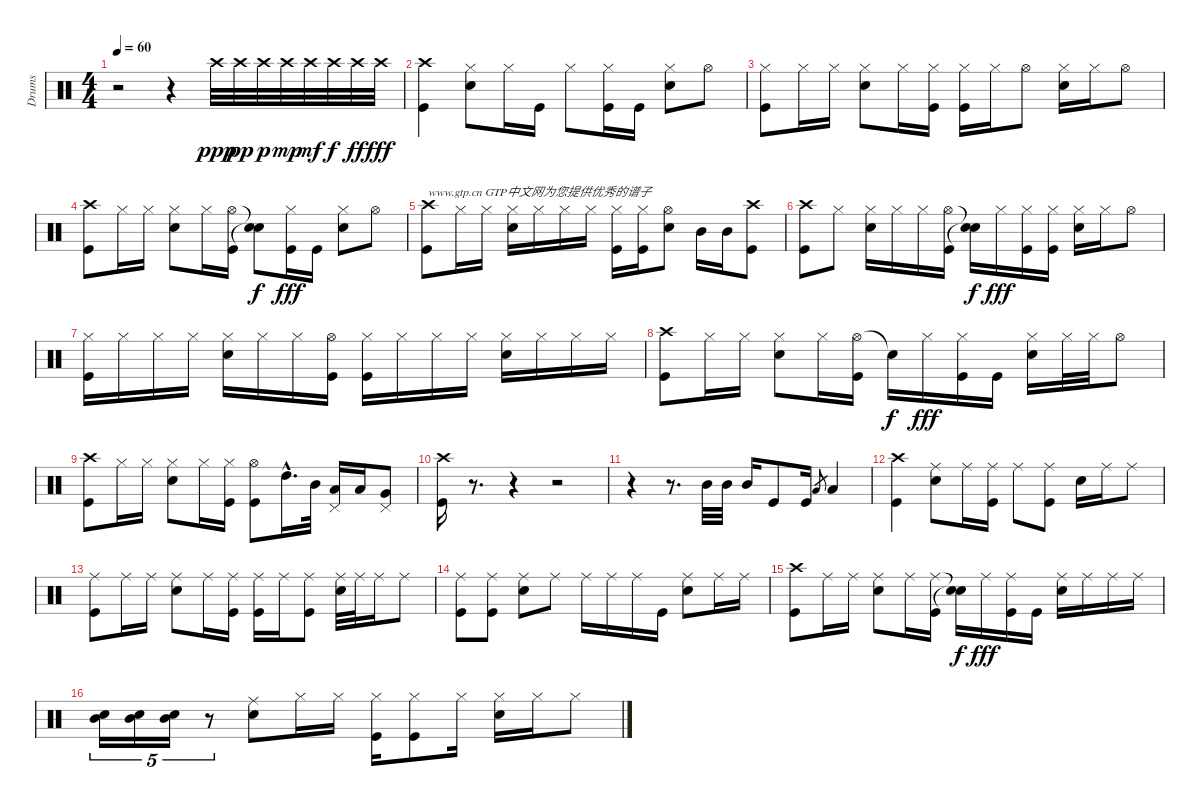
\track ("Drums" "Drums") {instrument percussion}
\staff {score}
\articulation defaults
\ts (4 4)
\tempo 60
\clef neutral
\ks c
r.2{dy ppp} r.4 "Crash high (hit)".32 "Crash high (hit)".32{dy pp} "Crash high (hit)".32{dy p} "Crash high (hit)".32{dy mp} "Crash high (hit)".32{dy mf} "Crash high (hit)".32{dy f} "Crash high (hit)".32{dy ff} "Crash high (hit)".32{dy fff} |
("Crash high (hit)" "Kick (hit)").4 ("Hi-Hat (closed)" "Snare (hit) 2").8 "Hi-Hat (closed)".16 "Kick (hit)".16 "Hi-Hat (closed)".8 ("Hi-Hat (closed)" "Kick (hit)").16 "Kick (hit)".16 ("Hi-Hat (closed)" "Snare (hit) 2").8 "Hi-Hat (open)".8 |
("Hi-Hat (closed)" "Kick (hit)").8 "Hi-Hat (closed)".16 "Hi-Hat (closed)".16 ("Hi-Hat (closed)" "Snare (hit) 2").8 "Hi-Hat (closed)".16 ("Hi-Hat (closed)" "Kick (hit)").16 ("Hi-Hat (closed)" "Kick (hit)").16 "Hi-Hat (closed)".16 "Hi-Hat (open)".8 ("Hi-Hat (closed)" "Snare (hit) 2").16 "Hi-Hat (closed)".16 "Hi-Hat (open)".8 |
("Crash high (hit)" "Kick (hit)").8 "Hi-Hat (closed)".16 "Hi-Hat (closed)".16 ("Hi-Hat (closed)" "Snare (hit) 2").8 "Hi-Hat (closed)".16 ("Hi-Hat (open)" "Kick (hit)").16 ("Snare (hit)"{t} "Snare (hit)"{t}).8{dy f} ("Hi-Hat (closed)" "Kick (hit)").16{dy fff} "Kick (hit)".16 ("Hi-Hat (closed)" "Snare (hit) 2").8 "Hi-Hat (open)".8 |
("Crash high (hit)" "Kick (hit)").8{txt "www.gtp.cn GTP中文网为您提供优秀的谱子"} "Hi-Hat (closed)".16 "Hi-Hat (closed)".16 ("Hi-Hat (closed)" "Snare (hit) 2").16 "Hi-Hat (closed)".16 "Hi-Hat (closed)".16 "Hi-Hat (closed)".16 ("Hi-Hat (closed)" "Kick (hit)").16 ("Hi-Hat (closed)" "Kick (hit)").16 ("Hi-Hat (open)" "Snare (hit) 2").8 "Mid Tom (hit)".16 "Mid Tom (hit)".16 ("Crash high (hit)" "Kick (hit)").8 |
("Crash high (hit)" "Kick (hit)").8 "Hi-Hat (closed)".8 ("Hi-Hat (closed)" "Snare (hit) 2").16 "Hi-Hat (closed)".16 "Hi-Hat (closed)".16 ("Hi-Hat (open)" "Kick (hit)").16 ("Snare (hit)"{t} "Snare (hit)"{t}).16{dy f} "Hi-Hat (closed)".16{dy fff} ("Hi-Hat (closed)" "Kick (hit)").16 ("Hi-Hat (closed)" "Kick (hit)").16 ("Hi-Hat (closed)" "Snare (hit) 2").16 "Hi-Hat (closed)".16 "Hi-Hat (open)".8 |
("Hi-Hat (closed)" "Kick (hit)").16 "Hi-Hat (closed)".16 "Hi-Hat (closed)".16 "Hi-Hat (closed)".16 ("Hi-Hat (closed)" "Snare (hit) 2").16 "Hi-Hat (closed)".16 "Hi-Hat (closed)".16 ("Hi-Hat (open)" "Kick (hit)").16 ("Hi-Hat (closed)" "Kick (hit)").16 "Hi-Hat (closed)".16 "Hi-Hat (closed)".16 "Hi-Hat (closed)".16 ("Hi-Hat (closed)" "Snare (hit) 2").16 "Hi-Hat (closed)".16 "Hi-Hat (closed)".16 "Hi-Hat (closed)".16 |
("Crash high (hit)" "Kick (hit)").8 "Hi-Hat (closed)".16 "Hi-Hat (closed)".16 ("Hi-Hat (closed)" "Snare (hit) 2").8 "Hi-Hat (closed)".16 ("Hi-Hat (open)" "Kick (hit)").16 "Snare (hit)"{t}.16{dy f} "Hi-Hat (closed)".16{dy fff} ("Hi-Hat (closed)" "Kick (hit)").16 "Kick (hit)".16 ("Hi-Hat (closed)" "Snare (hit) 2").16 "Hi-Hat (closed)".32 "Hi-Hat (closed)".32 "Hi-Hat (open)".8 |
("Crash high (hit)" "Kick (hit)").8 "Hi-Hat (closed)".16 "Hi-Hat (closed)".16 ("Hi-Hat (closed)" "Snare (hit) 2").8 "Hi-Hat (closed)".16 ("Hi-Hat (closed)" "Kick (hit)").16 ("Hi-Hat (open)" "Kick (hit)").8 "High Tom (hit)"{hac}.16{d} "Mid Tom (hit)".32 ("Pedal Hi-Hat (hit)" "Low Tom (hit)").16 "Low Tom (hit)".16 ("Pedal Hi-Hat (hit)" "Very Low Tom (hit)").8 |
("Crash high (hit)" "Kick (hit)").16 r.8{d} r.4 r.2 |
r.4 r.8{d} "Mid Tom (hit)".32 "Mid Tom (hit)".32 "Mid Tom (hit)".16 "Kick (hit)".8 "Kick (hit)".16 "Low Tom (hit)".8{gr} "Low Tom (hit)".4 |
("Crash high (hit)" "Kick (hit)").4 ("Ride (middle)" "Snare (hit) 2").8 "Ride (middle)".16 ("Ride (middle)" "Kick (hit)").16 "Ride (middle)".8 ("Ride (middle)" "Kick (hit)").8 "Snare (hit) 2".16 "Ride (middle)".16 "Ride (middle)".8 |
("Ride (middle)" "Kick (hit)").8 "Ride (middle)".16 "Ride (middle)".16 ("Ride (middle)" "Snare (hit) 2").8 "Ride (middle)".16 ("Ride (middle)" "Kick (hit)").16 ("Ride (middle)" "Kick (hit)").16 "Ride (middle)".16 ("Ride (middle)" "Kick (hit)").8 ("Ride (middle)" "Snare (hit) 2").32 "Ride (middle)".32 "Ride (middle)".16 "Ride (middle)".8 |
("Ride (middle)" "Kick (hit)").8 ("Ride (middle)" "Kick (hit)").8 ("Ride (middle)" "Snare (hit) 2").8 "Ride (middle)".8 "Ride (middle)".16 "Ride (middle)".16 "Ride (middle)".16 "Kick (hit)".16 ("Ride (middle)" "Snare (hit) 2").8 "Ride (middle)".16 "Ride (middle)".16 |
("Crash high (hit)" "Kick (hit)").8 "Ride (middle)".16 "Ride (middle)".16 ("Ride (middle)" "Snare (hit) 2").8 "Ride (middle)".16 ("Ride (middle)" "Kick (hit)").16 ("Snare (hit)"{t} "Snare (hit)"{t}).16{dy f} "Ride (middle)".16{dy fff} ("Ride (middle)" "Kick (hit)").16 "Kick (hit)".16 ("Ride (middle)" "Snare (hit) 2").16 "Ride (middle)".16 "Ride (middle)".16 "Ride (middle)".16 |
("Mid Tom (hit)" "Snare (hit) 2").16{tu (5 4)} ("Mid Tom (hit)" "Snare (hit) 2").16{tu (5 4)} ("Mid Tom (hit)" "Snare (hit) 2").16{tu (5 4)} r.8{tu (5 4)} ("Ride (middle)" "Snare (hit) 2").8 "Hi-Hat (closed)".16 "Hi-Hat (closed)".16 ("Hi-Hat (closed)" "Kick (hit)").16 ("Hi-Hat (closed)" "Kick (hit)").8 "Hi-Hat (closed)".16 ("Hi-Hat (closed)" "Snare (hit) 2").16 "Hi-Hat (closed)".16 "Hi-Hat (closed)".8
